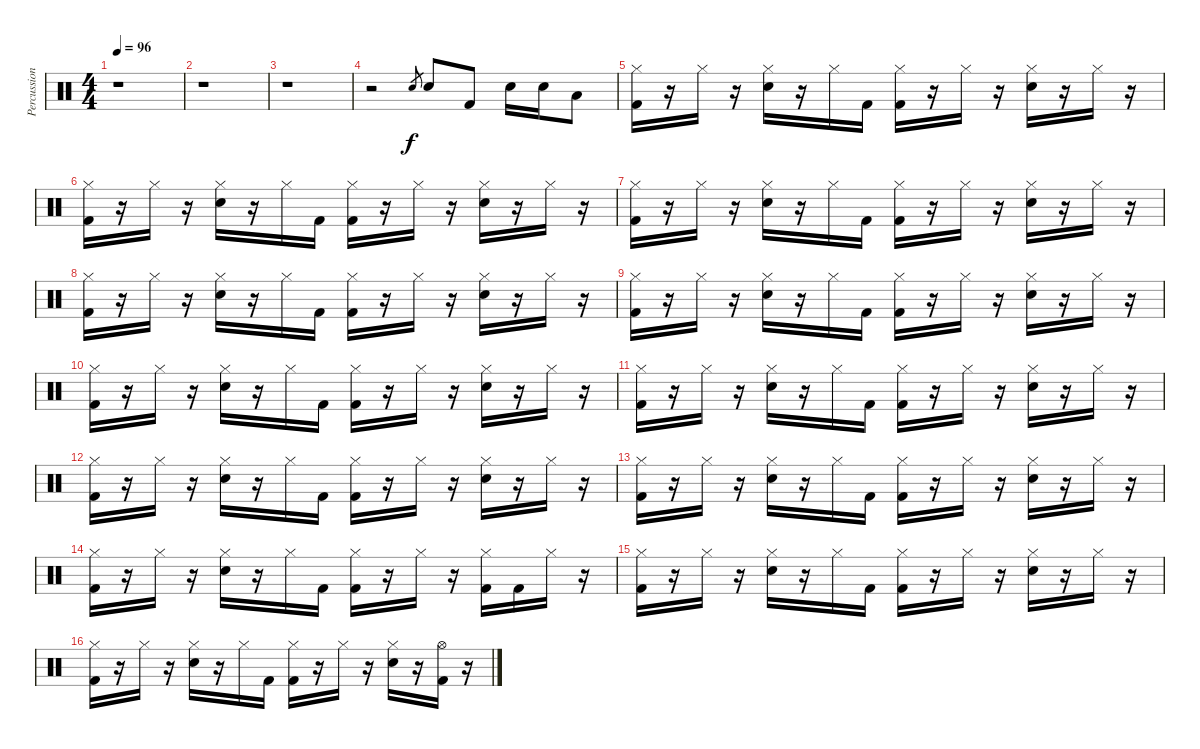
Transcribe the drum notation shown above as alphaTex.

\track ("Percussion" "Percussion") {instrument percussion}
\staff {score}
\articulation defaults
\ts (4 4)
\tempo 96
\clef neutral
\ks c
r.1{dy f} |
r.1 |
r.1 |
r.2 "Snare (hit) 2".8{gr} "Snare (hit) 2".8 "Kick (hit) 2".8 "Snare (hit) 2".16 "Snare (hit) 2".16 "Low Floor Tom (hit)".8 |
("Hi-Hat (closed)" "Kick (hit) 2").16 r.16 "Hi-Hat (closed)".16 r.16 ("Hi-Hat (closed)" "Snare (hit) 2").16 r.16 "Hi-Hat (closed)".16 "Kick (hit) 2".16 ("Hi-Hat (closed)" "Kick (hit) 2").16 r.16 "Hi-Hat (closed)".16 r.16 ("Hi-Hat (closed)" "Snare (hit) 2").16 r.16 "Hi-Hat (closed)".16 r.16 |
("Hi-Hat (closed)" "Kick (hit) 2").16 r.16 "Hi-Hat (closed)".16 r.16 ("Hi-Hat (closed)" "Snare (hit) 2").16 r.16 "Hi-Hat (closed)".16 "Kick (hit) 2".16 ("Hi-Hat (closed)" "Kick (hit) 2").16 r.16 "Hi-Hat (closed)".16 r.16 ("Hi-Hat (closed)" "Snare (hit) 2").16 r.16 "Hi-Hat (closed)".16 r.16 |
("Hi-Hat (closed)" "Kick (hit) 2").16 r.16 "Hi-Hat (closed)".16 r.16 ("Hi-Hat (closed)" "Snare (hit) 2").16 r.16 "Hi-Hat (closed)".16 "Kick (hit) 2".16 ("Hi-Hat (closed)" "Kick (hit) 2").16 r.16 "Hi-Hat (closed)".16 r.16 ("Hi-Hat (closed)" "Snare (hit) 2").16 r.16 "Hi-Hat (closed)".16 r.16 |
("Hi-Hat (closed)" "Kick (hit) 2").16 r.16 "Hi-Hat (closed)".16 r.16 ("Hi-Hat (closed)" "Snare (hit) 2").16 r.16 "Hi-Hat (closed)".16 "Kick (hit) 2".16 ("Hi-Hat (closed)" "Kick (hit) 2").16 r.16 "Hi-Hat (closed)".16 r.16 ("Hi-Hat (closed)" "Snare (hit) 2").16 r.16 "Hi-Hat (closed)".16 r.16 |
("Hi-Hat (closed)" "Kick (hit) 2").16 r.16 "Hi-Hat (closed)".16 r.16 ("Hi-Hat (closed)" "Snare (hit) 2").16 r.16 "Hi-Hat (closed)".16 "Kick (hit) 2".16 ("Hi-Hat (closed)" "Kick (hit) 2").16 r.16 "Hi-Hat (closed)".16 r.16 ("Hi-Hat (closed)" "Snare (hit) 2").16 r.16 "Hi-Hat (closed)".16 r.16 |
("Hi-Hat (closed)" "Kick (hit) 2").16 r.16 "Hi-Hat (closed)".16 r.16 ("Hi-Hat (closed)" "Snare (hit) 2").16 r.16 "Hi-Hat (closed)".16 "Kick (hit) 2".16 ("Hi-Hat (closed)" "Kick (hit) 2").16 r.16 "Hi-Hat (closed)".16 r.16 ("Hi-Hat (closed)" "Snare (hit) 2").16 r.16 "Hi-Hat (closed)".16 r.16 |
("Hi-Hat (closed)" "Kick (hit) 2").16 r.16 "Hi-Hat (closed)".16 r.16 ("Hi-Hat (closed)" "Snare (hit) 2").16 r.16 "Hi-Hat (closed)".16 "Kick (hit) 2".16 ("Hi-Hat (closed)" "Kick (hit) 2").16 r.16 "Hi-Hat (closed)".16 r.16 ("Hi-Hat (closed)" "Snare (hit) 2").16 r.16 "Hi-Hat (closed)".16 r.16 |
("Hi-Hat (closed)" "Kick (hit) 2").16 r.16 "Hi-Hat (closed)".16 r.16 ("Hi-Hat (closed)" "Snare (hit) 2").16 r.16 "Hi-Hat (closed)".16 "Kick (hit) 2".16 ("Hi-Hat (closed)" "Kick (hit) 2").16 r.16 "Hi-Hat (closed)".16 r.16 ("Hi-Hat (closed)" "Snare (hit) 2").16 r.16 "Hi-Hat (closed)".16 r.16 |
("Hi-Hat (closed)" "Kick (hit) 2").16 r.16 "Hi-Hat (closed)".16 r.16 ("Hi-Hat (closed)" "Snare (hit) 2").16 r.16 "Hi-Hat (closed)".16 "Kick (hit) 2".16 ("Hi-Hat (closed)" "Kick (hit) 2").16 r.16 "Hi-Hat (closed)".16 r.16 ("Hi-Hat (closed)" "Snare (hit) 2").16 r.16 "Hi-Hat (closed)".16 r.16 |
("Hi-Hat (closed)" "Kick (hit) 2").16 r.16 "Hi-Hat (closed)".16 r.16 ("Hi-Hat (closed)" "Snare (hit) 2").16 r.16 "Hi-Hat (closed)".16 "Kick (hit) 2".16 ("Hi-Hat (closed)" "Kick (hit) 2").16 r.16 "Hi-Hat (closed)".16 r.16 ("Hi-Hat (closed)" "Kick (hit) 2").16 "Kick (hit) 2".16 "Hi-Hat (closed)".16 r.16 |
("Hi-Hat (closed)" "Kick (hit) 2").16 r.16 "Hi-Hat (closed)".16 r.16 ("Hi-Hat (closed)" "Snare (hit) 2").16 r.16 "Hi-Hat (closed)".16 "Kick (hit) 2".16 ("Hi-Hat (closed)" "Kick (hit) 2").16 r.16 "Hi-Hat (closed)".16 r.16 ("Hi-Hat (closed)" "Snare (hit) 2").16 r.16 "Hi-Hat (closed)".16 r.16 |
("Hi-Hat (closed)" "Kick (hit) 2").16 r.16 "Hi-Hat (closed)".16 r.16 ("Hi-Hat (closed)" "Snare (hit) 2").16 r.16 "Hi-Hat (closed)".16 "Kick (hit) 2".16 ("Hi-Hat (closed)" "Kick (hit) 2").16 r.16 "Hi-Hat (closed)".16 r.16 ("Hi-Hat (closed)" "Snare (hit) 2").16 r.16 ("Hi-Hat (open)" "Kick (hit) 2").16 r.16
